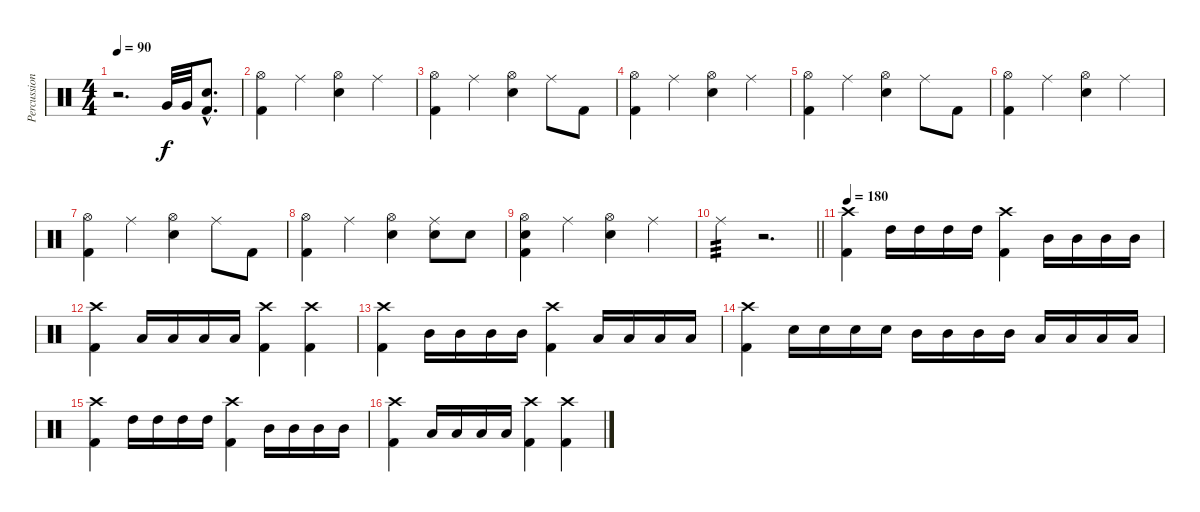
\track ("Percussion" "Percussion") {instrument percussion}
\staff {score}
\articulation defaults
\ts (4 4)
\tempo 90
\clef neutral
\ks c
r.2{d dy f} "Very Low Tom (hit)".32 "Very Low Tom (hit)".32 ("Snare (hit) 2"{hac} "Kick (hit) 2"{hac}).8{d} |
("Hi-Hat (open)" "Kick (hit) 2").4 "Ride (middle)".4 ("Hi-Hat (open)" "Snare (hit) 2").4 "Ride (middle)".4 |
("Hi-Hat (open)" "Kick (hit) 2").4 "Ride (middle)".4 ("Hi-Hat (open)" "Snare (hit) 2").4 "Ride (middle)".8 "Kick (hit) 2".8 |
("Hi-Hat (open)" "Kick (hit) 2").4 "Ride (middle)".4 ("Hi-Hat (open)" "Snare (hit) 2").4 "Ride (middle)".4 |
("Hi-Hat (open)" "Kick (hit) 2").4 "Ride (middle)".4 ("Hi-Hat (open)" "Snare (hit) 2").4 "Ride (middle)".8 "Kick (hit) 2".8 |
("Hi-Hat (open)" "Kick (hit) 2").4 "Ride (middle)".4 ("Hi-Hat (open)" "Snare (hit) 2").4 "Ride (middle)".4 |
("Hi-Hat (open)" "Kick (hit) 2").4 "Ride (middle)".4 ("Hi-Hat (open)" "Snare (hit) 2").4 "Ride (middle)".8 "Kick (hit) 2".8 |
("Hi-Hat (open)" "Kick (hit) 2").4 "Ride (middle)".4 ("Hi-Hat (open)" "Snare (hit) 2").4 ("Ride (middle)" "Snare (hit) 2").8 "Snare (hit) 2".8 |
("Hi-Hat (open)" "Snare (hit) 2" "Kick (hit) 2").4 "Ride (middle)".4 ("Hi-Hat (open)" "Snare (hit) 2").4 "Ride (middle)".4 |
\barLineRight lightlight "Ride (middle)".4{tp 3}
r.2{d} |
\tempo 180
("Crash high (hit)" "Kick (hit) 2").4 "High Tom (hit)".16 "High Tom (hit)".16 "High Tom (hit)".16 "High Tom (hit)".16 ("Crash high (hit)" "Kick (hit) 2").4 "Mid Tom (hit)".16 "Mid Tom (hit)".16 "Mid Tom (hit)".16 "Mid Tom (hit)".16 |
("Crash high (hit)" "Kick (hit) 2").4 "Low Tom (hit)".16 "Low Tom (hit)".16 "Low Tom (hit)".16 "Low Tom (hit)".16 ("Crash high (hit)" "Kick (hit) 2").4 ("Crash high (hit)" "Kick (hit) 2").4 |
("Crash high (hit)" "Kick (hit) 2").4 "Mid Tom (hit)".16 "Mid Tom (hit)".16 "Mid Tom (hit)".16 "Mid Tom (hit)".16 ("Crash high (hit)" "Kick (hit) 2").4 "Low Tom (hit)".16 "Low Tom (hit)".16 "Low Tom (hit)".16 "Low Tom (hit)".16 |
("Crash high (hit)" "Kick (hit) 2").4 "Snare (hit) 2".16 "Snare (hit) 2".16 "Snare (hit) 2".16 "Snare (hit) 2".16 "Mid Tom (hit)".16 "Mid Tom (hit)".16 "Mid Tom (hit)".16 "Mid Tom (hit)".16 "Low Tom (hit)".16 "Low Tom (hit)".16 "Low Tom (hit)".16 "Low Tom (hit)".16 |
("Crash high (hit)" "Kick (hit) 2").4 "High Tom (hit)".16 "High Tom (hit)".16 "High Tom (hit)".16 "High Tom (hit)".16 ("Crash high (hit)" "Kick (hit) 2").4 "Mid Tom (hit)".16 "Mid Tom (hit)".16 "Mid Tom (hit)".16 "Mid Tom (hit)".16 |
("Crash high (hit)" "Kick (hit) 2").4 "Low Tom (hit)".16 "Low Tom (hit)".16 "Low Tom (hit)".16 "Low Tom (hit)".16 ("Crash high (hit)" "Kick (hit) 2").4 ("Crash high (hit)" "Kick (hit) 2").4
